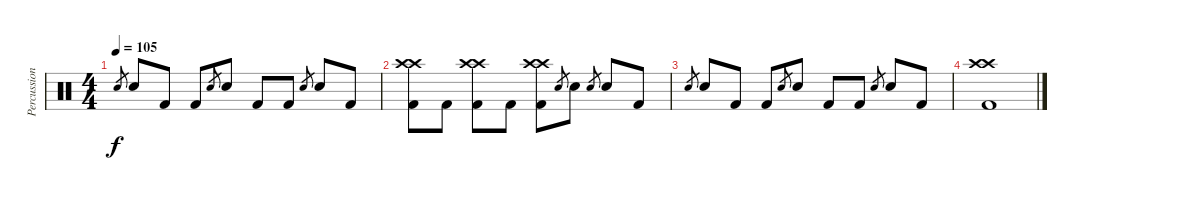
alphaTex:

\track ("Percussioni" "Percussion") {instrument percussion}
\staff {score}
\articulation defaults
\ts (4 4)
\tempo 105
\clef neutral
\ks c "Snare (hit) 2".8{gr dy f} "Snare (hit) 2".8 "Kick (hit) 2".8 "Kick (hit) 2".8 "Snare (hit) 2".8{gr} "Snare (hit) 2".8 "Kick (hit) 2".8 "Kick (hit) 2".8 "Snare (hit) 2".8{gr} "Snare (hit) 2".8 "Kick (hit) 2".8
|
("Crash high (hit)" "Crash high (hit)" "Kick (hit) 2").8 "Kick (hit) 2".8 ("Crash high (hit)" "Crash high (hit)" "Kick (hit) 2").8 "Kick (hit) 2".8 ("Crash high (hit)" "Crash high (hit)" "Kick (hit) 2").8 "Snare (hit) 2".8{gr} "Snare (hit) 2".8 "Snare (hit) 2".8{gr} "Snare (hit) 2".8 "Kick (hit) 2".8 |
"Snare (hit) 2".8{gr} "Snare (hit) 2".8 "Kick (hit) 2".8 "Kick (hit) 2".8 "Snare (hit) 2".8{gr} "Snare (hit) 2".8 "Kick (hit) 2".8 "Kick (hit) 2".8 "Snare (hit) 2".8{gr} "Snare (hit) 2".8 "Kick (hit) 2".8 |
("Crash high (hit)" "Crash high (hit)" "Kick (hit) 2").1
